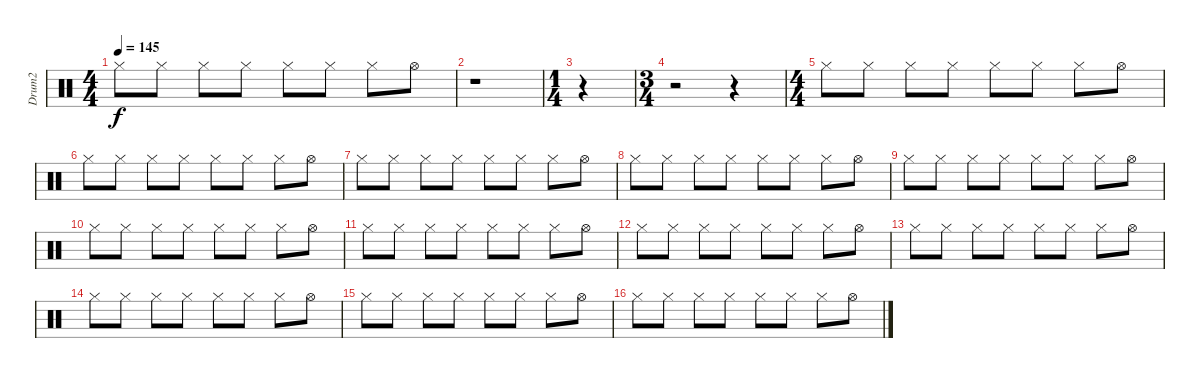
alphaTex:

\track ("Drum2" "Drum2") {instrument percussion}
\staff {score}
\articulation defaults
\ts (4 4)
\tempo 145
\clef neutral
\ks c "Hi-Hat (closed)".8{dy f} "Hi-Hat (closed)".8 "Hi-Hat (closed)".8 "Hi-Hat (closed)".8 "Hi-Hat (closed)".8 "Hi-Hat (closed)".8 "Hi-Hat (closed)".8 "Hi-Hat (open)".8
|
r.1 |
\ts (1 4)
r.4 |
\ts (3 4)
r.2 r.4 |
\ts (4 4)
"Hi-Hat (closed)".8 "Hi-Hat (closed)".8 "Hi-Hat (closed)".8 "Hi-Hat (closed)".8 "Hi-Hat (closed)".8 "Hi-Hat (closed)".8 "Hi-Hat (closed)".8 "Hi-Hat (open)".8 |
"Hi-Hat (closed)".8 "Hi-Hat (closed)".8 "Hi-Hat (closed)".8 "Hi-Hat (closed)".8 "Hi-Hat (closed)".8 "Hi-Hat (closed)".8 "Hi-Hat (closed)".8 "Hi-Hat (open)".8 |
"Hi-Hat (closed)".8 "Hi-Hat (closed)".8 "Hi-Hat (closed)".8 "Hi-Hat (closed)".8 "Hi-Hat (closed)".8 "Hi-Hat (closed)".8 "Hi-Hat (closed)".8 "Hi-Hat (open)".8 |
"Hi-Hat (closed)".8 "Hi-Hat (closed)".8 "Hi-Hat (closed)".8 "Hi-Hat (closed)".8 "Hi-Hat (closed)".8 "Hi-Hat (closed)".8 "Hi-Hat (closed)".8 "Hi-Hat (open)".8 |
"Hi-Hat (closed)".8 "Hi-Hat (closed)".8 "Hi-Hat (closed)".8 "Hi-Hat (closed)".8 "Hi-Hat (closed)".8 "Hi-Hat (closed)".8 "Hi-Hat (closed)".8 "Hi-Hat (open)".8 |
"Hi-Hat (closed)".8 "Hi-Hat (closed)".8 "Hi-Hat (closed)".8 "Hi-Hat (closed)".8 "Hi-Hat (closed)".8 "Hi-Hat (closed)".8 "Hi-Hat (closed)".8 "Hi-Hat (open)".8 |
"Hi-Hat (closed)".8 "Hi-Hat (closed)".8 "Hi-Hat (closed)".8 "Hi-Hat (closed)".8 "Hi-Hat (closed)".8 "Hi-Hat (closed)".8 "Hi-Hat (closed)".8 "Hi-Hat (open)".8 |
"Hi-Hat (closed)".8 "Hi-Hat (closed)".8 "Hi-Hat (closed)".8 "Hi-Hat (closed)".8 "Hi-Hat (closed)".8 "Hi-Hat (closed)".8 "Hi-Hat (closed)".8 "Hi-Hat (open)".8 |
"Hi-Hat (closed)".8 "Hi-Hat (closed)".8 "Hi-Hat (closed)".8 "Hi-Hat (closed)".8 "Hi-Hat (closed)".8 "Hi-Hat (closed)".8 "Hi-Hat (closed)".8 "Hi-Hat (open)".8 |
"Hi-Hat (closed)".8 "Hi-Hat (closed)".8 "Hi-Hat (closed)".8 "Hi-Hat (closed)".8 "Hi-Hat (closed)".8 "Hi-Hat (closed)".8 "Hi-Hat (closed)".8 "Hi-Hat (open)".8 |
"Hi-Hat (closed)".8 "Hi-Hat (closed)".8 "Hi-Hat (closed)".8 "Hi-Hat (closed)".8 "Hi-Hat (closed)".8 "Hi-Hat (closed)".8 "Hi-Hat (closed)".8 "Hi-Hat (open)".8 |
"Hi-Hat (closed)".8 "Hi-Hat (closed)".8 "Hi-Hat (closed)".8 "Hi-Hat (closed)".8 "Hi-Hat (closed)".8 "Hi-Hat (closed)".8 "Hi-Hat (closed)".8 "Hi-Hat (open)".8
